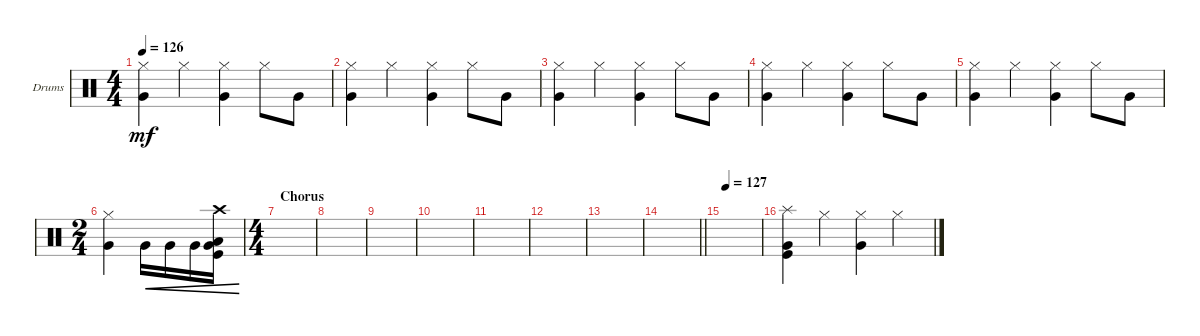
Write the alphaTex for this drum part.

\defaultSystemsLayout 4
\bracketExtendMode groupsimilarinstruments
\firstSystemTrackNameOrientation horizontal
\otherSystemsTrackNameOrientation horizontal
\chordDiagramsInScore
\track ("Drumkit" "Drums") {instrument percussion}
\staff {score}
\articulation defaults
\ts (4 4)
\tempo 126
\clef neutral
\scale
0.333333
\ks c
("Hi-Hat (closed)" "Very Low Tom (hit)").4{dy mf} "Hi-Hat (closed)".4 ("Hi-Hat (closed)" "Very Low Tom (hit)").4 "Hi-Hat (closed)".8 "Very Low Tom (hit)".8 |
\scale
0.333333 ("Hi-Hat (closed)" "Very Low Tom (hit)").4 "Hi-Hat (closed)".4 ("Hi-Hat (closed)" "Very Low Tom (hit)").4 "Hi-Hat (closed)".8 "Very Low Tom (hit)".8 |
\scale
0.333333 ("Hi-Hat (closed)" "Very Low Tom (hit)").4 "Hi-Hat (closed)".4 ("Hi-Hat (closed)" "Very Low Tom (hit)").4 "Hi-Hat (closed)".8 "Very Low Tom (hit)".8 |
\scale
0.333333 ("Hi-Hat (closed)" "Very Low Tom (hit)").4 "Hi-Hat (closed)".4 ("Hi-Hat (closed)" "Very Low Tom (hit)").4 "Hi-Hat (closed)".8 "Very Low Tom (hit)".8 |
\scale
0.333333 ("Hi-Hat (closed)" "Very Low Tom (hit)").4 "Hi-Hat (closed)".4 ("Hi-Hat (closed)" "Very Low Tom (hit)").4 "Hi-Hat (closed)".8 "Very Low Tom (hit)".8 |
\ts (2 4)
\scale
0.391473 ("Very Low Tom (hit)" "Hi-Hat (closed)").4 "Very Low Tom (hit)".16{cre} "Very Low Tom (hit)".16{cre} "Very Low Tom (hit)".16{cre} ("Very Low Tom (hit)" "Low Tom (hit)" "Kick (hit)" "Crash high (hit)").16{cre} |
\ts (4 4)
\section ("" "Chorus")
\scale
0.391473 |
\scale
0.217054 |
\scale
0.333333 |
\scale
0.333333 |
\scale
0.333333 |
\scale
0.333333 |
\scale
0.333333 |
\scale
0.333333
\barLineRight lightlight
|
\tempo (127 0.0465116)
\scale
0.333333 |
\scale
0.333333 ("Kick (hit)" "Splash (hit)" "Very Low Tom (hit)").4 "Hi-Hat (closed)".4 ("Hi-Hat (closed)" "Very Low Tom (hit)").4 "Hi-Hat (closed)".4
